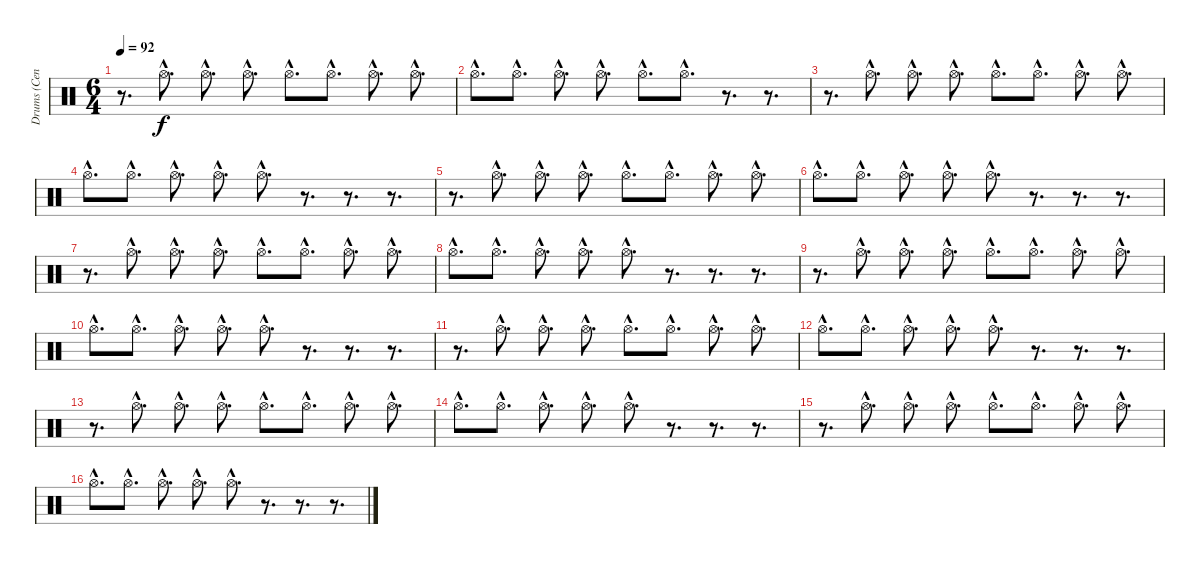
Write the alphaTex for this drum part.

\track ("Drums (Cenk)" "Drums (Cen") {instrument percussion}
\staff {score}
\articulation defaults
\ts (6 4)
\tempo 92
\clef neutral
\ks c
r.8{d dy f} "Hi-Hat (open)"{hac}.8{d} "Hi-Hat (open)"{hac}.8{d} "Hi-Hat (open)"{hac}.8{d} "Hi-Hat (open)"{hac}.8{d} "Hi-Hat (open)"{hac}.8{d} "Hi-Hat (open)"{hac}.8{d} "Hi-Hat (open)"{hac}.8{d} |
"Hi-Hat (open)"{hac}.8{d} "Hi-Hat (open)"{hac}.8{d} "Hi-Hat (open)"{hac}.8{d} "Hi-Hat (open)"{hac}.8{d} "Hi-Hat (open)"{hac}.8{d} "Hi-Hat (open)"{hac}.8{d} r.8{d} r.8{d} |
r.8{d} "Hi-Hat (open)"{hac}.8{d} "Hi-Hat (open)"{hac}.8{d} "Hi-Hat (open)"{hac}.8{d} "Hi-Hat (open)"{hac}.8{d} "Hi-Hat (open)"{hac}.8{d} "Hi-Hat (open)"{hac}.8{d} "Hi-Hat (open)"{hac}.8{d} |
"Hi-Hat (open)"{hac}.8{d} "Hi-Hat (open)"{hac}.8{d} "Hi-Hat (open)"{hac}.8{d} "Hi-Hat (open)"{hac}.8{d} "Hi-Hat (open)"{hac}.8{d} r.8{d} r.8{d} r.8{d} |
r.8{d} "Hi-Hat (open)"{hac}.8{d} "Hi-Hat (open)"{hac}.8{d} "Hi-Hat (open)"{hac}.8{d} "Hi-Hat (open)"{hac}.8{d} "Hi-Hat (open)"{hac}.8{d} "Hi-Hat (open)"{hac}.8{d} "Hi-Hat (open)"{hac}.8{d} |
"Hi-Hat (open)"{hac}.8{d} "Hi-Hat (open)"{hac}.8{d} "Hi-Hat (open)"{hac}.8{d} "Hi-Hat (open)"{hac}.8{d} "Hi-Hat (open)"{hac}.8{d} r.8{d} r.8{d} r.8{d} |
r.8{d} "Hi-Hat (open)"{hac}.8{d} "Hi-Hat (open)"{hac}.8{d} "Hi-Hat (open)"{hac}.8{d} "Hi-Hat (open)"{hac}.8{d} "Hi-Hat (open)"{hac}.8{d} "Hi-Hat (open)"{hac}.8{d} "Hi-Hat (open)"{hac}.8{d} |
"Hi-Hat (open)"{hac}.8{d} "Hi-Hat (open)"{hac}.8{d} "Hi-Hat (open)"{hac}.8{d} "Hi-Hat (open)"{hac}.8{d} "Hi-Hat (open)"{hac}.8{d} r.8{d} r.8{d} r.8{d} |
r.8{d} "Hi-Hat (open)"{hac}.8{d} "Hi-Hat (open)"{hac}.8{d} "Hi-Hat (open)"{hac}.8{d} "Hi-Hat (open)"{hac}.8{d} "Hi-Hat (open)"{hac}.8{d} "Hi-Hat (open)"{hac}.8{d} "Hi-Hat (open)"{hac}.8{d} |
"Hi-Hat (open)"{hac}.8{d} "Hi-Hat (open)"{hac}.8{d} "Hi-Hat (open)"{hac}.8{d} "Hi-Hat (open)"{hac}.8{d} "Hi-Hat (open)"{hac}.8{d} r.8{d} r.8{d} r.8{d} |
r.8{d} "Hi-Hat (open)"{hac}.8{d} "Hi-Hat (open)"{hac}.8{d} "Hi-Hat (open)"{hac}.8{d} "Hi-Hat (open)"{hac}.8{d} "Hi-Hat (open)"{hac}.8{d} "Hi-Hat (open)"{hac}.8{d} "Hi-Hat (open)"{hac}.8{d} |
"Hi-Hat (open)"{hac}.8{d} "Hi-Hat (open)"{hac}.8{d} "Hi-Hat (open)"{hac}.8{d} "Hi-Hat (open)"{hac}.8{d} "Hi-Hat (open)"{hac}.8{d} r.8{d} r.8{d} r.8{d} |
r.8{d} "Hi-Hat (open)"{hac}.8{d} "Hi-Hat (open)"{hac}.8{d} "Hi-Hat (open)"{hac}.8{d} "Hi-Hat (open)"{hac}.8{d} "Hi-Hat (open)"{hac}.8{d} "Hi-Hat (open)"{hac}.8{d} "Hi-Hat (open)"{hac}.8{d} |
"Hi-Hat (open)"{hac}.8{d} "Hi-Hat (open)"{hac}.8{d} "Hi-Hat (open)"{hac}.8{d} "Hi-Hat (open)"{hac}.8{d} "Hi-Hat (open)"{hac}.8{d} r.8{d} r.8{d} r.8{d} |
r.8{d} "Hi-Hat (open)"{hac}.8{d} "Hi-Hat (open)"{hac}.8{d} "Hi-Hat (open)"{hac}.8{d} "Hi-Hat (open)"{hac}.8{d} "Hi-Hat (open)"{hac}.8{d} "Hi-Hat (open)"{hac}.8{d} "Hi-Hat (open)"{hac}.8{d} |
"Hi-Hat (open)"{hac}.8{d} "Hi-Hat (open)"{hac}.8{d} "Hi-Hat (open)"{hac}.8{d} "Hi-Hat (open)"{hac}.8{d} "Hi-Hat (open)"{hac}.8{d} r.8{d} r.8{d} r.8{d}
